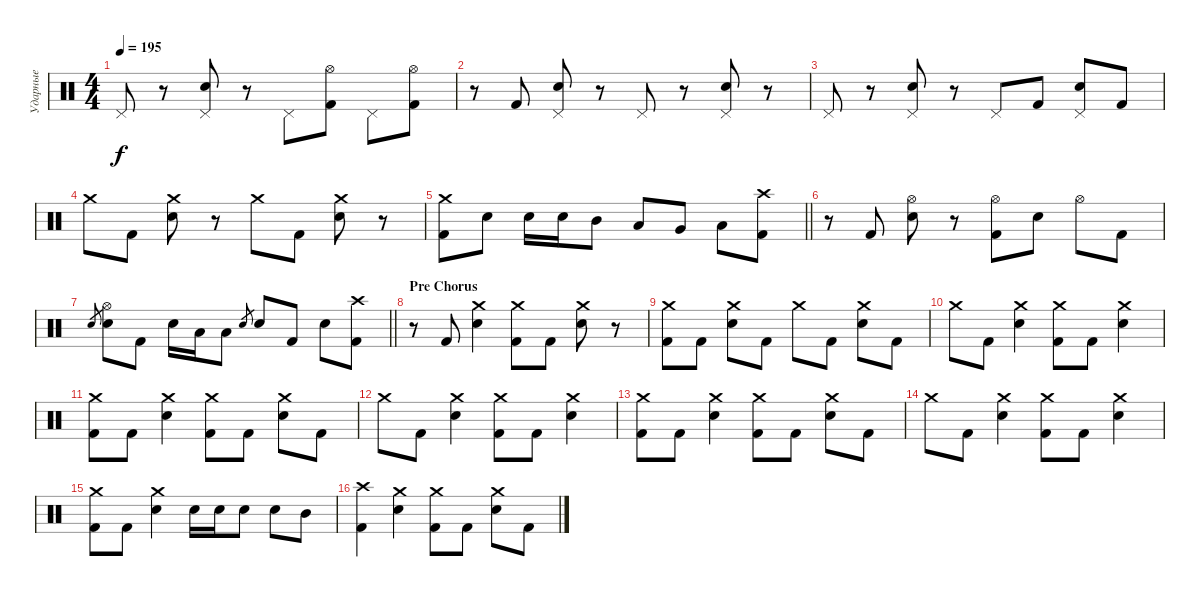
\track ("Ударные" "Ударные") {instrument percussion}
\staff {score}
\articulation defaults
\ts (4 4)
\tempo 195
\clef neutral
\ks c "Pedal Hi-Hat (hit)".8{dy f}
r.8 ("Pedal Hi-Hat (hit)" "Electric Snare (hit)").8 r.8 "Pedal Hi-Hat (hit)".8 ("Hi-Hat (open)" "Kick (hit) 2").8 "Pedal Hi-Hat (hit)".8 ("Hi-Hat (open)" "Kick (hit) 2").8 |
r.8 "Kick (hit) 2".8 ("Pedal Hi-Hat (hit)" "Electric Snare (hit)").8 r.8 "Pedal Hi-Hat (hit)".8 r.8 ("Pedal Hi-Hat (hit)" "Electric Snare (hit)").8 r.8 |
"Pedal Hi-Hat (hit)".8 r.8 ("Pedal Hi-Hat (hit)" "Electric Snare (hit)").8 r.8 "Pedal Hi-Hat (hit)".8 "Kick (hit) 2".8 ("Pedal Hi-Hat (hit)" "Electric Snare (hit)").8 "Kick (hit) 2".8 |
"Crash medium (hit)".8 "Kick (hit) 2".8 ("Crash medium (hit)" "Electric Snare (hit)").8 r.8 "Crash medium (hit)".8 "Kick (hit) 2".8 ("Crash medium (hit)" "Electric Snare (hit)").8 r.8 |
\barLineRight lightlight
("Crash medium (hit)" "Kick (hit) 2").8 "Electric Snare (hit)".8 "Electric Snare (hit)".16 "Electric Snare (hit)".16 "Mid Tom (hit)".8 "Low Tom (hit)".8 "Very Low Tom (hit)".8 "Low Floor Tom (hit)".8 ("Crash high (hit)" "Kick (hit) 2").8 |
r.8 "Kick (hit) 2".8 ("Hi-Hat (open)" "Electric Snare (hit)").8 r.8 ("Hi-Hat (open)" "Kick (hit) 2").8 "Electric Snare (hit)".8 "Hi-Hat (open)".8 "Kick (hit) 2".8 |
\barLineRight lightlight "Electric Snare (hit)".8{gr}
("Hi-Hat (open)" "Electric Snare (hit)").8 "Kick (hit) 2".8 "Electric Snare (hit)".16 "Low Tom (hit)".16 "Low Floor Tom (hit)".8 "Electric Snare (hit)".8{gr} "Electric Snare (hit)".8 "Kick (hit) 2".8 "Electric Snare (hit)".8 ("Crash high (hit)" "Kick (hit) 2").8 |
\section ("" "Pre Chorus")
r.8 "Kick (hit) 2".8 ("Crash medium (hit)" "Electric Snare (hit)").4 ("Crash medium (hit)" "Kick (hit) 2").8 "Kick (hit) 2".8 ("Crash medium (hit)" "Electric Snare (hit)").8 r.8 |
("Crash medium (hit)" "Kick (hit) 2").8 "Kick (hit) 2".8 ("Crash medium (hit)" "Electric Snare (hit)").8 "Kick (hit) 2".8 "Crash medium (hit)".8 "Kick (hit) 2".8 ("Crash medium (hit)" "Electric Snare (hit)").8 "Kick (hit) 2".8 |
"Crash medium (hit)".8 "Kick (hit) 2".8 ("Crash medium (hit)" "Electric Snare (hit)").4 ("Crash medium (hit)" "Kick (hit) 2").8 "Kick (hit) 2".8 ("Crash medium (hit)" "Electric Snare (hit)").4 |
("Crash medium (hit)" "Kick (hit) 2").8 "Kick (hit) 2".8 ("Crash medium (hit)" "Electric Snare (hit)").4 ("Crash medium (hit)" "Kick (hit) 2").8 "Kick (hit) 2".8 ("Crash medium (hit)" "Electric Snare (hit)").8 "Kick (hit) 2".8 |
"Crash medium (hit)".8 "Kick (hit) 2".8 ("Crash medium (hit)" "Electric Snare (hit)").4 ("Crash medium (hit)" "Kick (hit) 2").8 "Kick (hit) 2".8 ("Crash medium (hit)" "Electric Snare (hit)").4 |
("Crash medium (hit)" "Kick (hit) 2").8 "Kick (hit) 2".8 ("Crash medium (hit)" "Electric Snare (hit)").4 ("Crash medium (hit)" "Kick (hit) 2").8 "Kick (hit) 2".8 ("Crash medium (hit)" "Electric Snare (hit)").8 "Kick (hit) 2".8 |
"Crash medium (hit)".8 "Kick (hit) 2".8 ("Crash medium (hit)" "Electric Snare (hit)").4 ("Crash medium (hit)" "Kick (hit) 2").8 "Kick (hit) 2".8 ("Crash medium (hit)" "Electric Snare (hit)").4 |
("Crash medium (hit)" "Kick (hit) 2").8 "Kick (hit) 2".8 ("Crash medium (hit)" "Electric Snare (hit)").4 "Electric Snare (hit)".16 "Electric Snare (hit)".16 "Electric Snare (hit)".8 "Electric Snare (hit)".8 "Mid Tom (hit)".8 |
("Crash high (hit)" "Kick (hit) 2").4 ("Crash medium (hit)" "Electric Snare (hit)").4 ("Crash medium (hit)" "Kick (hit) 2").8 "Kick (hit) 2".8 ("Crash medium (hit)" "Electric Snare (hit)").8 "Kick (hit) 2".8
